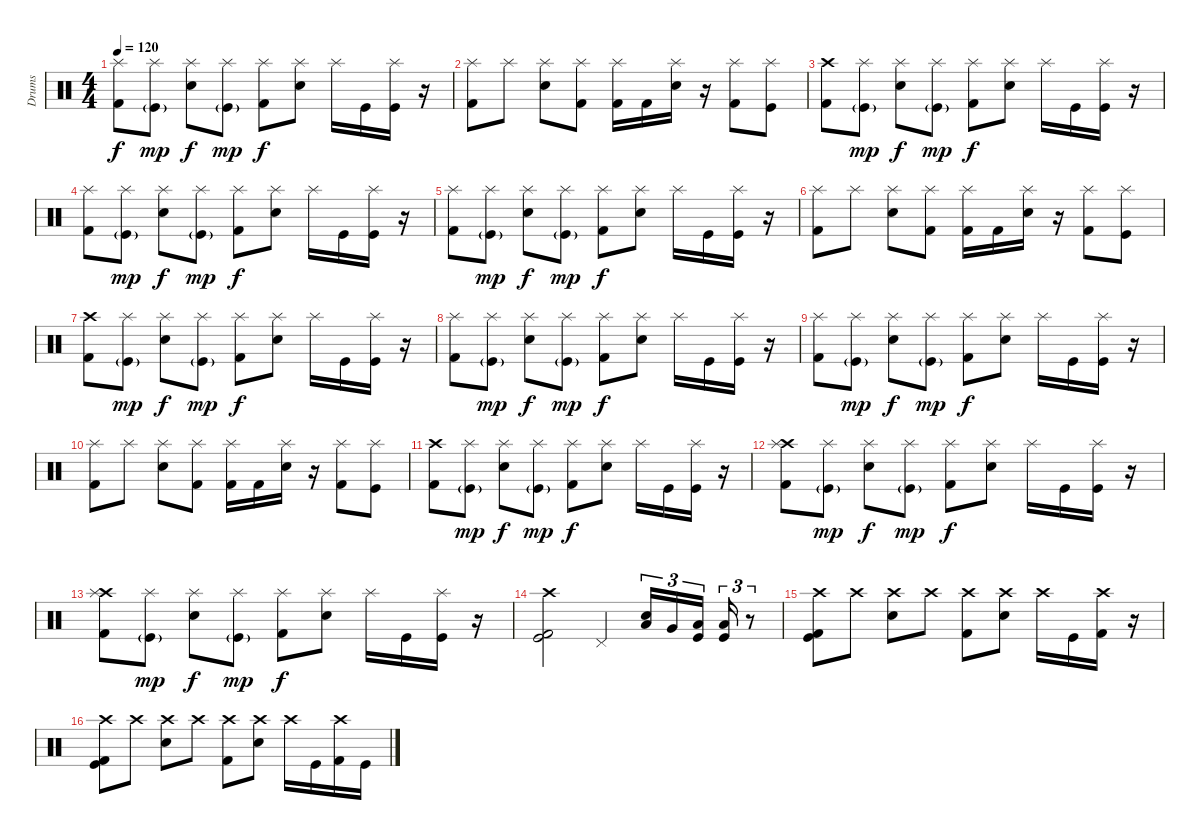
\track ("Drums" "Drums") {instrument percussion}
\staff {score}
\articulation defaults
\ts (4 4)
\tempo 120
\clef neutral
\ks c
("Splash (hit)" "Kick (hit) 2").8{dy f} ("Splash (hit)" "Kick (hit)"{g}).8{dy mp} ("Splash (hit)" "Electric Snare (hit)").8{dy f} ("Splash (hit)" "Kick (hit)"{g}).8{dy mp} ("Splash (hit)" "Kick (hit) 2").8{dy f} ("Splash (hit)" "Electric Snare (hit)").8 "Splash (hit)".16 "Kick (hit)".16 ("Splash (hit)" "Kick (hit)").16 r.16 |
("Splash (hit)" "Kick (hit) 2").8 "Splash (hit)".8 ("Splash (hit)" "Electric Snare (hit)").8 ("Splash (hit)" "Kick (hit) 2").8 ("Splash (hit)" "Kick (hit) 2").16 "Kick (hit) 2".16 ("Splash (hit)" "Electric Snare (hit)").16 r.16 ("Splash (hit)" "Kick (hit) 2").8 ("Splash (hit)" "Kick (hit)").8 |
("Crash high (hit)" "Kick (hit) 2").8 ("Splash (hit)" "Kick (hit)"{g}).8{dy mp} ("Splash (hit)" "Electric Snare (hit)").8{dy f} ("Splash (hit)" "Kick (hit)"{g}).8{dy mp} ("Splash (hit)" "Kick (hit) 2").8{dy f} ("Splash (hit)" "Electric Snare (hit)").8 "Splash (hit)".16 "Kick (hit)".16 ("Splash (hit)" "Kick (hit)").16 r.16 |
("Splash (hit)" "Kick (hit) 2").8 ("Splash (hit)" "Kick (hit)"{g}).8{dy mp} ("Splash (hit)" "Electric Snare (hit)").8{dy f} ("Splash (hit)" "Kick (hit)"{g}).8{dy mp} ("Splash (hit)" "Kick (hit) 2").8{dy f} ("Splash (hit)" "Electric Snare (hit)").8 "Splash (hit)".16 "Kick (hit)".16 ("Splash (hit)" "Kick (hit)").16 r.16 |
("Splash (hit)" "Kick (hit) 2").8 ("Splash (hit)" "Kick (hit)"{g}).8{dy mp} ("Splash (hit)" "Electric Snare (hit)").8{dy f} ("Splash (hit)" "Kick (hit)"{g}).8{dy mp} ("Splash (hit)" "Kick (hit) 2").8{dy f} ("Splash (hit)" "Electric Snare (hit)").8 "Splash (hit)".16 "Kick (hit)".16 ("Splash (hit)" "Kick (hit)").16 r.16 |
("Splash (hit)" "Kick (hit) 2").8 "Splash (hit)".8 ("Splash (hit)" "Electric Snare (hit)").8 ("Splash (hit)" "Kick (hit) 2").8 ("Splash (hit)" "Kick (hit) 2").16 "Kick (hit) 2".16 ("Splash (hit)" "Electric Snare (hit)").16 r.16 ("Splash (hit)" "Kick (hit) 2").8 ("Splash (hit)" "Kick (hit)").8 |
("Crash high (hit)" "Kick (hit) 2").8 ("Splash (hit)" "Kick (hit)"{g}).8{dy mp} ("Splash (hit)" "Electric Snare (hit)").8{dy f} ("Splash (hit)" "Kick (hit)"{g}).8{dy mp} ("Splash (hit)" "Kick (hit) 2").8{dy f} ("Splash (hit)" "Electric Snare (hit)").8 "Splash (hit)".16 "Kick (hit)".16 ("Splash (hit)" "Kick (hit)").16 r.16 |
("Splash (hit)" "Kick (hit) 2").8 ("Splash (hit)" "Kick (hit)"{g}).8{dy mp} ("Splash (hit)" "Electric Snare (hit)").8{dy f} ("Splash (hit)" "Kick (hit)"{g}).8{dy mp} ("Splash (hit)" "Kick (hit) 2").8{dy f} ("Splash (hit)" "Electric Snare (hit)").8 "Splash (hit)".16 "Kick (hit)".16 ("Splash (hit)" "Kick (hit)").16 r.16 |
("Splash (hit)" "Kick (hit) 2").8 ("Splash (hit)" "Kick (hit)"{g}).8{dy mp} ("Splash (hit)" "Electric Snare (hit)").8{dy f} ("Splash (hit)" "Kick (hit)"{g}).8{dy mp} ("Splash (hit)" "Kick (hit) 2").8{dy f} ("Splash (hit)" "Electric Snare (hit)").8 "Splash (hit)".16 "Kick (hit)".16 ("Splash (hit)" "Kick (hit)").16 r.16 |
("Splash (hit)" "Kick (hit) 2").8 "Splash (hit)".8 ("Splash (hit)" "Electric Snare (hit)").8 ("Splash (hit)" "Kick (hit) 2").8 ("Splash (hit)" "Kick (hit) 2").16 "Kick (hit) 2".16 ("Splash (hit)" "Electric Snare (hit)").16 r.16 ("Splash (hit)" "Kick (hit) 2").8 ("Splash (hit)" "Kick (hit)").8 |
("Crash high (hit)" "Kick (hit) 2").8{volume 10} ("Splash (hit)" "Kick (hit)"{g}).8{dy mp} ("Splash (hit)" "Electric Snare (hit)").8{dy f} ("Splash (hit)" "Kick (hit)"{g}).8{dy mp} ("Splash (hit)" "Kick (hit) 2").8{dy f} ("Splash (hit)" "Electric Snare (hit)").8 "Splash (hit)".16 "Kick (hit)".16 ("Splash (hit)" "Kick (hit)").16 r.16 |
("Crash high (hit)" "Splash (hit)" "Kick (hit) 2").8 ("Splash (hit)" "Kick (hit)"{g}).8{dy mp} ("Splash (hit)" "Electric Snare (hit)").8{dy f} ("Splash (hit)" "Kick (hit)"{g}).8{dy mp} ("Splash (hit)" "Kick (hit) 2").8{dy f} ("Splash (hit)" "Electric Snare (hit)").8 "Splash (hit)".16 "Kick (hit)".16 ("Splash (hit)" "Kick (hit)").16 r.16 |
("Crash high (hit)" "Splash (hit)" "Kick (hit) 2").8 ("Splash (hit)" "Kick (hit)"{g}).8{dy mp} ("Splash (hit)" "Electric Snare (hit)").8{dy f} ("Splash (hit)" "Kick (hit)"{g}).8{dy mp} ("Splash (hit)" "Kick (hit) 2").8{dy f} ("Splash (hit)" "Electric Snare (hit)").8 "Splash (hit)".16 "Kick (hit)".16 ("Splash (hit)" "Kick (hit)").16 r.16 |
("Crash high (hit)" "Kick (hit)" "Kick (hit) 2").2{volume 13} "Pedal Hi-Hat (hit)".4 ("Low Tom (hit)" "Electric Snare (hit)").16{tu (3 2)} "Very Low Tom (hit)".16{tu (3 2)} ("Low Tom (hit)" "Kick (hit)").16{tu (3 2)} ("Low Tom (hit)" "Kick (hit)").16{tu (3 2)} r.8{tu (3 2)} |
\section ("" "")
("Crash high (hit)" "Kick (hit) 2" "Kick (hit)").8{volume 12} "Crash high (hit)".8 ("Crash high (hit)" "Electric Snare (hit)").8 "Crash high (hit)".8 ("Crash high (hit)" "Kick (hit) 2").8 ("Crash high (hit)" "Electric Snare (hit)").8 "Crash high (hit)".16 "Kick (hit)".16 ("Crash high (hit)" "Kick (hit) 2").16 r.16 |
("Crash high (hit)" "Kick (hit) 2" "Kick (hit)").8 "Crash high (hit)".8 ("Crash high (hit)" "Electric Snare (hit)").8 "Crash high (hit)".8 ("Crash high (hit)" "Kick (hit) 2").8 ("Crash high (hit)" "Electric Snare (hit)").8 "Crash high (hit)".16 "Kick (hit)".16 ("Crash high (hit)" "Kick (hit) 2").16 "Kick (hit)".16
